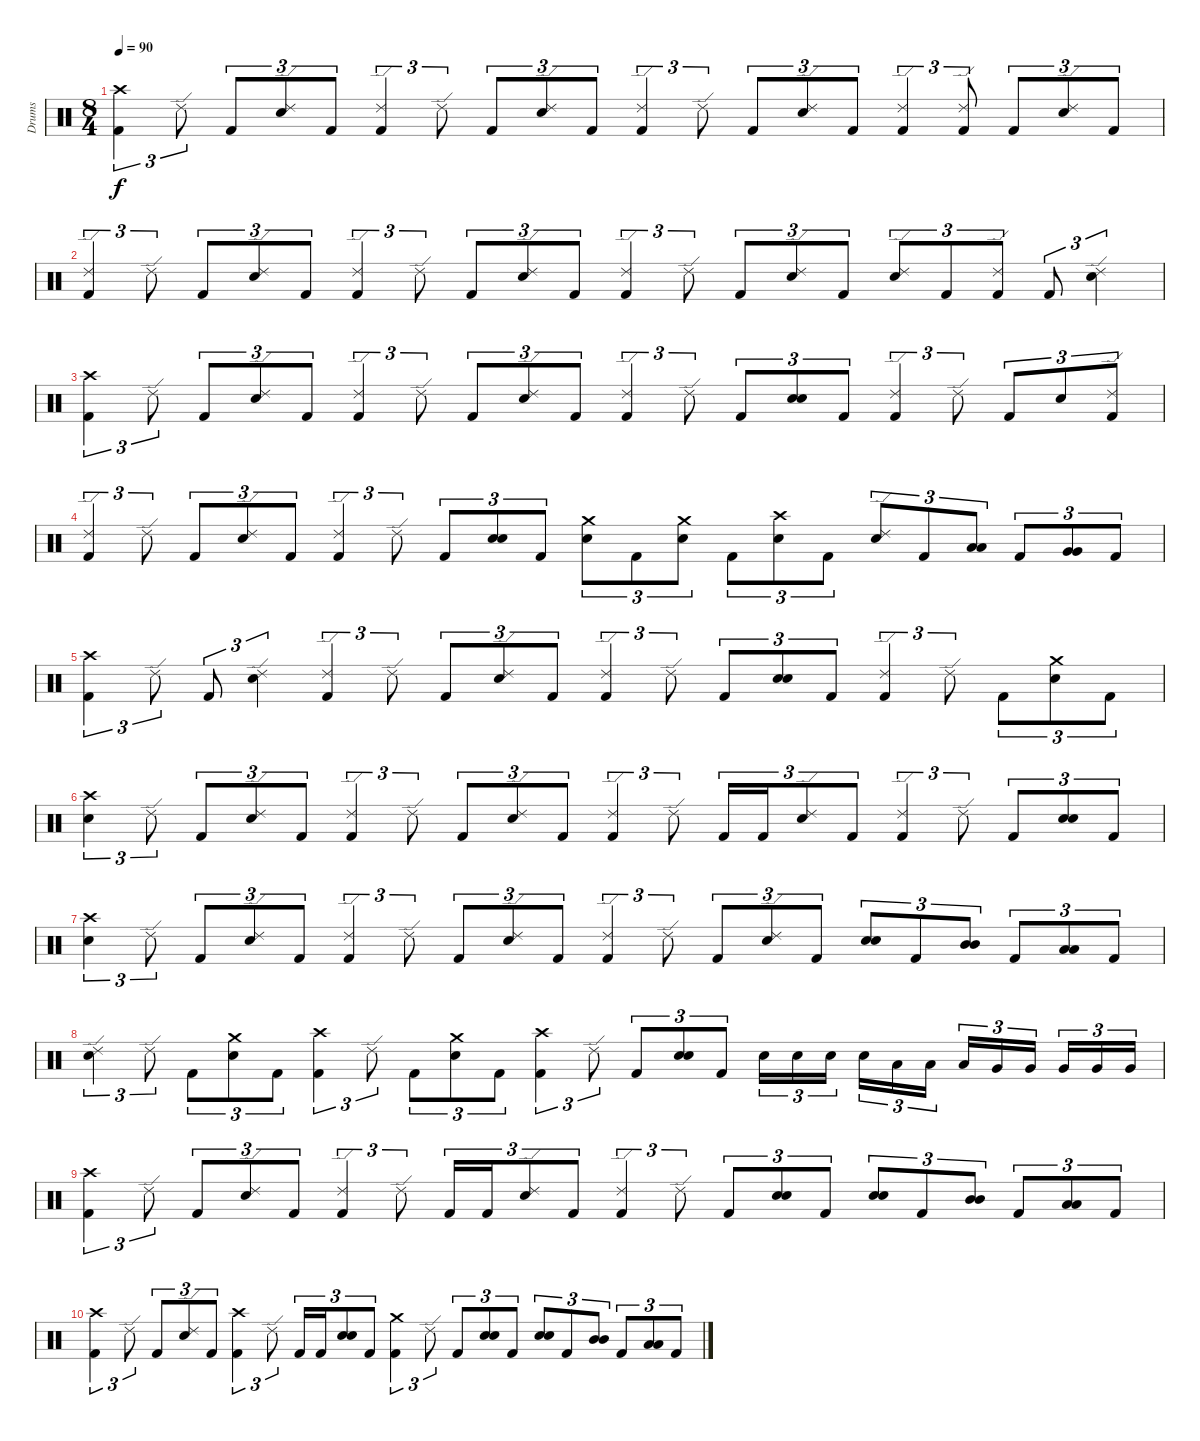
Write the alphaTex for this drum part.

\track ("Drums" "Drums") {instrument percussion}
\staff {score}
\articulation defaults
\ts (8 4)
\tempo 90
\clef neutral
\ks c
("Crash high (hit)" "Kick (hit) 2").4{tu (3 2) dy f} "Ride (edge) 2".8{tu (3 2)} "Kick (hit) 2".8{tu (3 2)} ("Ride (edge) 2" "Electric Snare (hit)").8{tu (3 2)} "Kick (hit) 2".8{tu (3 2)} ("Ride (edge) 2" "Kick (hit) 2").4{tu (3 2)} "Ride (edge) 2".8{tu (3 2)} "Kick (hit) 2".8{tu (3 2)} ("Ride (edge) 2" "Electric Snare (hit)").8{tu (3 2)} "Kick (hit) 2".8{tu (3 2)} ("Ride (edge) 2" "Kick (hit) 2").4{tu (3 2)} "Ride (edge) 2".8{tu (3 2)} "Kick (hit) 2".8{tu (3 2)} ("Ride (edge) 2" "Electric Snare (hit)").8{tu (3 2)} "Kick (hit) 2".8{tu (3 2)} ("Ride (edge) 2" "Kick (hit) 2").4{tu (3 2)} ("Ride (edge) 2" "Kick (hit) 2").8{tu (3 2)} "Kick (hit) 2".8{tu (3 2)} ("Ride (edge) 2" "Electric Snare (hit)").8{tu (3 2)} "Kick (hit) 2".8{tu (3 2)} |
("Ride (edge) 2" "Kick (hit) 2").4{tu (3 2)} "Ride (edge) 2".8{tu (3 2)} "Kick (hit) 2".8{tu (3 2)} ("Ride (edge) 2" "Electric Snare (hit)").8{tu (3 2)} "Kick (hit) 2".8{tu (3 2)} ("Ride (edge) 2" "Kick (hit) 2").4{tu (3 2)} "Ride (edge) 2".8{tu (3 2)} "Kick (hit) 2".8{tu (3 2)} ("Ride (edge) 2" "Electric Snare (hit)").8{tu (3 2)} "Kick (hit) 2".8{tu (3 2)} ("Ride (edge) 2" "Kick (hit) 2").4{tu (3 2)} "Ride (edge) 2".8{tu (3 2)} "Kick (hit) 2".8{tu (3 2)} ("Ride (edge) 2" "Electric Snare (hit)").8{tu (3 2)} "Kick (hit) 2".8{tu (3 2)} ("Ride (edge) 2" "Electric Snare (hit)").8{tu (3 2)} "Kick (hit) 2".8{tu (3 2)} ("Ride (edge) 2" "Kick (hit) 2").8{tu (3 2)} "Kick (hit) 2".8{tu (3 2)} ("Ride (edge) 2" "Electric Snare (hit)").4{tu (3 2)} |
("Crash high (hit)" "Kick (hit) 2").4{tu (3 2)} "Ride (edge) 2".8{tu (3 2)} "Kick (hit) 2".8{tu (3 2)} ("Ride (edge) 2" "Electric Snare (hit)").8{tu (3 2)} "Kick (hit) 2".8{tu (3 2)} ("Ride (edge) 2" "Kick (hit) 2").4{tu (3 2)} "Ride (edge) 2".8{tu (3 2)} "Kick (hit) 2".8{tu (3 2)} ("Ride (edge) 2" "Electric Snare (hit)").8{tu (3 2)} "Kick (hit) 2".8{tu (3 2)} ("Ride (edge) 2" "Kick (hit) 2").4{tu (3 2)} "Ride (edge) 2".8{tu (3 2)} "Kick (hit) 2".8{tu (3 2)} ("Electric Snare (hit)" "Electric Snare (hit)").8{tu (3 2) bu 60} "Kick (hit) 2".8{tu (3 2)} ("Ride (edge) 2" "Kick (hit) 2").4{tu (3 2)} "Ride (edge) 2".8{tu (3 2)} "Kick (hit) 2".8{tu (3 2)} "Electric Snare (hit)".8{tu (3 2)} ("Ride (edge) 2" "Kick (hit) 2").8{tu (3 2)} |
("Ride (edge) 2" "Kick (hit) 2").4{tu (3 2)} "Ride (edge) 2".8{tu (3 2)} "Kick (hit) 2".8{tu (3 2)} ("Ride (edge) 2" "Electric Snare (hit)").8{tu (3 2)} "Kick (hit) 2".8{tu (3 2)} ("Ride (edge) 2" "Kick (hit) 2").4{tu (3 2)} "Ride (edge) 2".8{tu (3 2)} "Kick (hit) 2".8{tu (3 2)} ("Electric Snare (hit)" "Electric Snare (hit)").8{tu (3 2) bu 60} "Kick (hit) 2".8{tu (3 2)} ("Crash medium (hit)" "Electric Snare (hit)").8{tu (3 2)} "Kick (hit) 2".8{tu (3 2)} ("Crash medium (hit)" "Electric Snare (hit)").8{tu (3 2)} "Kick (hit) 2".8{tu (3 2)} ("Crash high (hit)" "Electric Snare (hit)").8{tu (3 2)} "Kick (hit) 2".8{tu (3 2)} ("Ride (edge) 2" "Electric Snare (hit)").8{tu (3 2)} "Kick (hit) 2".8{tu (3 2)} ("Low Tom (hit)" "Low Tom (hit)").8{tu (3 2) bu 60} "Kick (hit) 2".8{tu (3 2)} ("Very Low Tom (hit)" "Very Low Tom (hit)").8{tu (3 2) bu 60} "Kick (hit) 2".8{tu (3 2)} |
("Crash high (hit)" "Kick (hit) 2").4{tu (3 2)} "Ride (edge) 2".8{tu (3 2)} "Kick (hit) 2".8{tu (3 2)} ("Ride (edge) 2" "Electric Snare (hit)").4{tu (3 2)} ("Ride (edge) 2" "Kick (hit) 2").4{tu (3 2)} "Ride (edge) 2".8{tu (3 2)} "Kick (hit) 2".8{tu (3 2)} ("Ride (edge) 2" "Electric Snare (hit)").8{tu (3 2)} "Kick (hit) 2".8{tu (3 2)} ("Ride (edge) 2" "Kick (hit) 2").4{tu (3 2)} "Ride (edge) 2".8{tu (3 2)} "Kick (hit) 2".8{tu (3 2)} ("Electric Snare (hit)" "Electric Snare (hit)").8{tu (3 2) bu 60} "Kick (hit) 2".8{tu (3 2)} ("Ride (edge) 2" "Kick (hit) 2").4{tu (3 2)} "Ride (edge) 2".8{tu (3 2)} "Kick (hit) 2".8{tu (3 2)} ("Crash medium (hit)" "Electric Snare (hit)").8{tu (3 2)} "Kick (hit) 2".8{tu (3 2)} |
("Crash high (hit)" "Electric Snare (hit)").4{tu (3 2)} "Ride (edge) 2".8{tu (3 2)} "Kick (hit) 2".8{tu (3 2)} ("Ride (edge) 2" "Electric Snare (hit)").8{tu (3 2)} "Kick (hit) 2".8{tu (3 2)} ("Ride (edge) 2" "Kick (hit) 2").4{tu (3 2)} "Ride (edge) 2".8{tu (3 2)} "Kick (hit) 2".8{tu (3 2)} ("Ride (edge) 2" "Electric Snare (hit)").8{tu (3 2)} "Kick (hit) 2".8{tu (3 2)} ("Ride (edge) 2" "Kick (hit) 2").4{tu (3 2)} "Ride (edge) 2".8{tu (3 2)} "Kick (hit) 2".16{tu (3 2)} "Kick (hit) 2".16{tu (3 2)} ("Ride (edge) 2" "Electric Snare (hit)").8{tu (3 2)} "Kick (hit) 2".8{tu (3 2)} ("Ride (edge) 2" "Kick (hit) 2").4{tu (3 2)} "Ride (edge) 2".8{tu (3 2)} "Kick (hit) 2".8{tu (3 2)} ("Electric Snare (hit)" "Electric Snare (hit)").8{tu (3 2) bu 60} "Kick (hit) 2".8{tu (3 2)} |
("Crash high (hit)" "Electric Snare (hit)").4{tu (3 2)} "Ride (edge) 2".8{tu (3 2)} "Kick (hit) 2".8{tu (3 2)} ("Ride (edge) 2" "Electric Snare (hit)").8{tu (3 2)} "Kick (hit) 2".8{tu (3 2)} ("Ride (edge) 2" "Kick (hit) 2").4{tu (3 2)} "Ride (edge) 2".8{tu (3 2)} "Kick (hit) 2".8{tu (3 2)} ("Ride (edge) 2" "Electric Snare (hit)").8{tu (3 2)} "Kick (hit) 2".8{tu (3 2)} ("Ride (edge) 2" "Kick (hit) 2").4{tu (3 2)} "Ride (edge) 2".8{tu (3 2)} "Kick (hit) 2".8{tu (3 2)} ("Ride (edge) 2" "Electric Snare (hit)").8{tu (3 2)} "Kick (hit) 2".8{tu (3 2)} ("Electric Snare (hit)" "Electric Snare (hit)").8{tu (3 2) bu 60} "Kick (hit) 2".8{tu (3 2)} ("Mid Tom (hit)" "Mid Tom (hit)").8{tu (3 2) bu 60} "Kick (hit) 2".8{tu (3 2)} ("Low Tom (hit)" "Low Tom (hit)").8{tu (3 2) bu 60} "Kick (hit) 2".8{tu (3 2)} |
("Ride (edge) 2" "Electric Snare (hit)").4{tu (3 2)} "Ride (edge) 2".8{tu (3 2)} "Kick (hit) 2".8{tu (3 2)} ("Crash medium (hit)" "Electric Snare (hit)").8{tu (3 2)} "Kick (hit) 2".8{tu (3 2)} ("Crash high (hit)" "Kick (hit) 2").4{tu (3 2)} "Ride (edge) 2".8{tu (3 2)} "Kick (hit) 2".8{tu (3 2)} ("Crash medium (hit)" "Electric Snare (hit)").8{tu (3 2)} "Kick (hit) 2".8{tu (3 2)} ("Crash high (hit)" "Kick (hit) 2").4{tu (3 2)} "Ride (edge) 2".8{tu (3 2)} "Kick (hit) 2".8{tu (3 2)} ("Electric Snare (hit)" "Electric Snare (hit)").8{tu (3 2) bu 60} "Kick (hit) 2".8{tu (3 2)} "Electric Snare (hit)".16{tu (3 2)} "Electric Snare (hit)".16{tu (3 2)} "Electric Snare (hit)".16{tu (3 2)} "Electric Snare (hit)".16{tu (3 2)} "Low Tom (hit)".16{tu (3 2)} "Low Tom (hit)".16{tu (3 2)} "Low Tom (hit)".16{tu (3 2)} "Very Low Tom (hit)".16{tu (3 2)} "Very Low Tom (hit)".16{tu (3 2)} "Very Low Tom (hit)".16{tu (3 2)} "Very Low Tom (hit)".16{tu (3 2)} "Very Low Tom (hit)".16{tu (3 2)} |
("Crash high (hit)" "Kick (hit) 2").4{tu (3 2)} "Ride (edge) 2".8{tu (3 2)} "Kick (hit) 2".8{tu (3 2)} ("Ride (edge) 2" "Electric Snare (hit)").8{tu (3 2)} "Kick (hit) 2".8{tu (3 2)} ("Ride (edge) 2" "Kick (hit) 2").4{tu (3 2)} "Ride (edge) 2".8{tu (3 2)} "Kick (hit) 2".16{tu (3 2)} "Kick (hit) 2".16{tu (3 2)} ("Ride (edge) 2" "Electric Snare (hit)").8{tu (3 2)} "Kick (hit) 2".8{tu (3 2)} ("Ride (edge) 2" "Kick (hit) 2").4{tu (3 2)} "Ride (edge) 2".8{tu (3 2)} "Kick (hit) 2".8{tu (3 2)} ("Electric Snare (hit)" "Electric Snare (hit)").8{tu (3 2) bu 60} "Kick (hit) 2".8{tu (3 2)} ("Electric Snare (hit)" "Electric Snare (hit)").8{tu (3 2) bu 60} "Kick (hit) 2".8{tu (3 2)} ("Mid Tom (hit)" "Mid Tom (hit)").8{tu (3 2) bu 60} "Kick (hit) 2".8{tu (3 2)} ("Low Tom (hit)" "Low Tom (hit)").8{tu (3 2) bu 60} "Kick (hit) 2".8{tu (3 2)} |
("Crash high (hit)" "Kick (hit) 2").4{tu (3 2)} "Ride (edge) 2".8{tu (3 2)} "Kick (hit) 2".8{tu (3 2)} ("Ride (edge) 2" "Electric Snare (hit)").8{tu (3 2)} "Kick (hit) 2".8{tu (3 2)} ("Crash high (hit)" "Kick (hit) 2").4{tu (3 2)} "Ride (edge) 2".8{tu (3 2)} "Kick (hit) 2".16{tu (3 2)} "Kick (hit) 2".16{tu (3 2)} ("Electric Snare (hit)" "Electric Snare (hit)").8{tu (3 2) bu 60} "Kick (hit) 2".8{tu (3 2)} ("Crash medium (hit)" "Kick (hit) 2").4{tu (3 2)} "Ride (edge) 2".8{tu (3 2)} "Kick (hit) 2".8{tu (3 2)} ("Electric Snare (hit)" "Electric Snare (hit)").8{tu (3 2) bu 60} "Kick (hit) 2".8{tu (3 2)} ("Electric Snare (hit)" "Electric Snare (hit)").8{tu (3 2) bu 60} "Kick (hit) 2".8{tu (3 2)} ("Mid Tom (hit)" "Mid Tom (hit)").8{tu (3 2) bu 60} "Kick (hit) 2".8{tu (3 2)} ("Low Tom (hit)" "Low Tom (hit)").8{tu (3 2) bu 60} "Kick (hit) 2".8{tu (3 2)}
